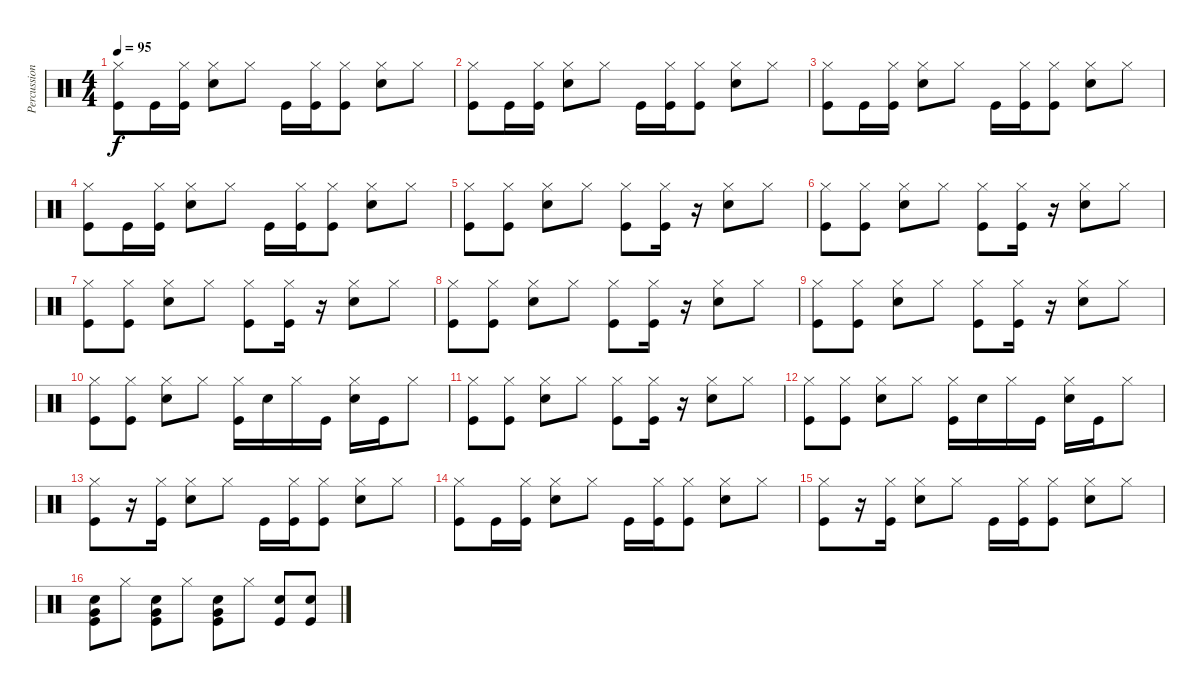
\track ("Percussion" "Percussion") {instrument percussion}
\staff {score}
\articulation defaults
\ts (4 4)
\tempo 95
\clef neutral
\ks c
("Hi-Hat (closed)" "Kick (hit)").8{dy f} "Kick (hit)".16 ("Hi-Hat (closed)" "Kick (hit)").16 ("Hi-Hat (closed)" "Snare (hit) 2").8 "Hi-Hat (closed)".8 "Kick (hit)".16 ("Hi-Hat (closed)" "Kick (hit)").16 ("Hi-Hat (closed)" "Kick (hit)").8 ("Hi-Hat (closed)" "Snare (hit) 2").8 "Hi-Hat (closed)".8 |
("Hi-Hat (closed)" "Kick (hit)").8 "Kick (hit)".16 ("Hi-Hat (closed)" "Kick (hit)").16 ("Hi-Hat (closed)" "Snare (hit) 2").8 "Hi-Hat (closed)".8 "Kick (hit)".16 ("Hi-Hat (closed)" "Kick (hit)").16 ("Hi-Hat (closed)" "Kick (hit)").8 ("Hi-Hat (closed)" "Snare (hit) 2").8 "Hi-Hat (closed)".8 |
("Hi-Hat (closed)" "Kick (hit)").8 "Kick (hit)".16 ("Hi-Hat (closed)" "Kick (hit)").16 ("Hi-Hat (closed)" "Snare (hit) 2").8 "Hi-Hat (closed)".8 "Kick (hit)".16 ("Hi-Hat (closed)" "Kick (hit)").16 ("Hi-Hat (closed)" "Kick (hit)").8 ("Hi-Hat (closed)" "Snare (hit) 2").8 "Hi-Hat (closed)".8 |
("Hi-Hat (closed)" "Kick (hit)").8 "Kick (hit)".16 ("Hi-Hat (closed)" "Kick (hit)").16 ("Hi-Hat (closed)" "Snare (hit) 2").8 "Hi-Hat (closed)".8 "Kick (hit)".16 ("Hi-Hat (closed)" "Kick (hit)").16 ("Hi-Hat (closed)" "Kick (hit)").8 ("Hi-Hat (closed)" "Snare (hit) 2").8 "Hi-Hat (closed)".8 |
("Hi-Hat (closed)" "Kick (hit)").8 ("Hi-Hat (closed)" "Kick (hit)").8 ("Hi-Hat (closed)" "Snare (hit) 2").8 "Hi-Hat (closed)".8 ("Hi-Hat (closed)" "Kick (hit)").8 ("Hi-Hat (closed)" "Kick (hit)").16 r.16 ("Hi-Hat (closed)" "Snare (hit) 2").8 "Hi-Hat (closed)".8 |
("Hi-Hat (closed)" "Kick (hit)").8 ("Hi-Hat (closed)" "Kick (hit)").8 ("Hi-Hat (closed)" "Snare (hit) 2").8 "Hi-Hat (closed)".8 ("Hi-Hat (closed)" "Kick (hit)").8 ("Hi-Hat (closed)" "Kick (hit)").16 r.16 ("Hi-Hat (closed)" "Snare (hit) 2").8 "Hi-Hat (closed)".8 |
("Hi-Hat (closed)" "Kick (hit)").8 ("Hi-Hat (closed)" "Kick (hit)").8 ("Hi-Hat (closed)" "Snare (hit) 2").8 "Hi-Hat (closed)".8 ("Hi-Hat (closed)" "Kick (hit)").8 ("Hi-Hat (closed)" "Kick (hit)").16 r.16 ("Hi-Hat (closed)" "Snare (hit) 2").8 "Hi-Hat (closed)".8 |
("Hi-Hat (closed)" "Kick (hit)").8 ("Hi-Hat (closed)" "Kick (hit)").8 ("Hi-Hat (closed)" "Snare (hit) 2").8 "Hi-Hat (closed)".8 ("Hi-Hat (closed)" "Kick (hit)").8 ("Hi-Hat (closed)" "Kick (hit)").16 r.16 ("Hi-Hat (closed)" "Snare (hit) 2").8 "Hi-Hat (closed)".8 |
("Hi-Hat (closed)" "Kick (hit)").8 ("Hi-Hat (closed)" "Kick (hit)").8 ("Hi-Hat (closed)" "Snare (hit) 2").8 "Hi-Hat (closed)".8 ("Hi-Hat (closed)" "Kick (hit)").8 ("Hi-Hat (closed)" "Kick (hit)").16 r.16 ("Hi-Hat (closed)" "Snare (hit) 2").8 "Hi-Hat (closed)".8 |
("Hi-Hat (closed)" "Kick (hit)").8 ("Hi-Hat (closed)" "Kick (hit)").8 ("Hi-Hat (closed)" "Snare (hit) 2").8 "Hi-Hat (closed)".8 ("Hi-Hat (closed)" "Kick (hit)").16 "Snare (hit) 2".16 "Hi-Hat (closed)".16 "Kick (hit)".16 ("Hi-Hat (closed)" "Snare (hit) 2").16 "Kick (hit)".16 "Hi-Hat (closed)".8 |
("Hi-Hat (closed)" "Kick (hit)").8 ("Hi-Hat (closed)" "Kick (hit)").8 ("Hi-Hat (closed)" "Snare (hit) 2").8 "Hi-Hat (closed)".8 ("Hi-Hat (closed)" "Kick (hit)").8 ("Hi-Hat (closed)" "Kick (hit)").16 r.16 ("Hi-Hat (closed)" "Snare (hit) 2").8 "Hi-Hat (closed)".8 |
("Hi-Hat (closed)" "Kick (hit)").8 ("Hi-Hat (closed)" "Kick (hit)").8 ("Hi-Hat (closed)" "Snare (hit) 2").8 "Hi-Hat (closed)".8 ("Hi-Hat (closed)" "Kick (hit)").16 "Snare (hit) 2".16 "Hi-Hat (closed)".16 "Kick (hit)".16 ("Hi-Hat (closed)" "Snare (hit) 2").16 "Kick (hit)".16 "Hi-Hat (closed)".8 |
("Hi-Hat (closed)" "Kick (hit)").8 r.16 ("Hi-Hat (closed)" "Kick (hit)").16 ("Hi-Hat (closed)" "Snare (hit) 2").8 "Hi-Hat (closed)".8 "Kick (hit)".16 ("Hi-Hat (closed)" "Kick (hit)").16 ("Hi-Hat (closed)" "Kick (hit)").8 ("Hi-Hat (closed)" "Snare (hit) 2").8 "Hi-Hat (closed)".8 |
("Hi-Hat (closed)" "Kick (hit)").8 "Kick (hit)".16 ("Hi-Hat (closed)" "Kick (hit)").16 ("Hi-Hat (closed)" "Snare (hit) 2").8 "Hi-Hat (closed)".8 "Kick (hit)".16 ("Hi-Hat (closed)" "Kick (hit)").16 ("Hi-Hat (closed)" "Kick (hit)").8 ("Hi-Hat (closed)" "Snare (hit) 2").8 "Hi-Hat (closed)".8 |
("Hi-Hat (closed)" "Kick (hit)").8 r.16 ("Hi-Hat (closed)" "Kick (hit)").16 ("Hi-Hat (closed)" "Snare (hit) 2").8 "Hi-Hat (closed)".8 "Kick (hit)".16 ("Hi-Hat (closed)" "Kick (hit)").16 ("Hi-Hat (closed)" "Kick (hit)").8 ("Hi-Hat (closed)" "Snare (hit) 2").8 "Hi-Hat (closed)".8 |
("Very Low Tom (hit)" "Snare (hit) 2" "Kick (hit)").8 "Hi-Hat (closed)".8 ("Snare (hit) 2" "Kick (hit)" "Very Low Tom (hit)").8 "Hi-Hat (closed)".8 ("Snare (hit) 2" "Kick (hit)" "Very Low Tom (hit)").8 "Hi-Hat (closed)".8 ("Snare (hit) 2" "Kick (hit)").8 ("Snare (hit) 2" "Kick (hit)").8
